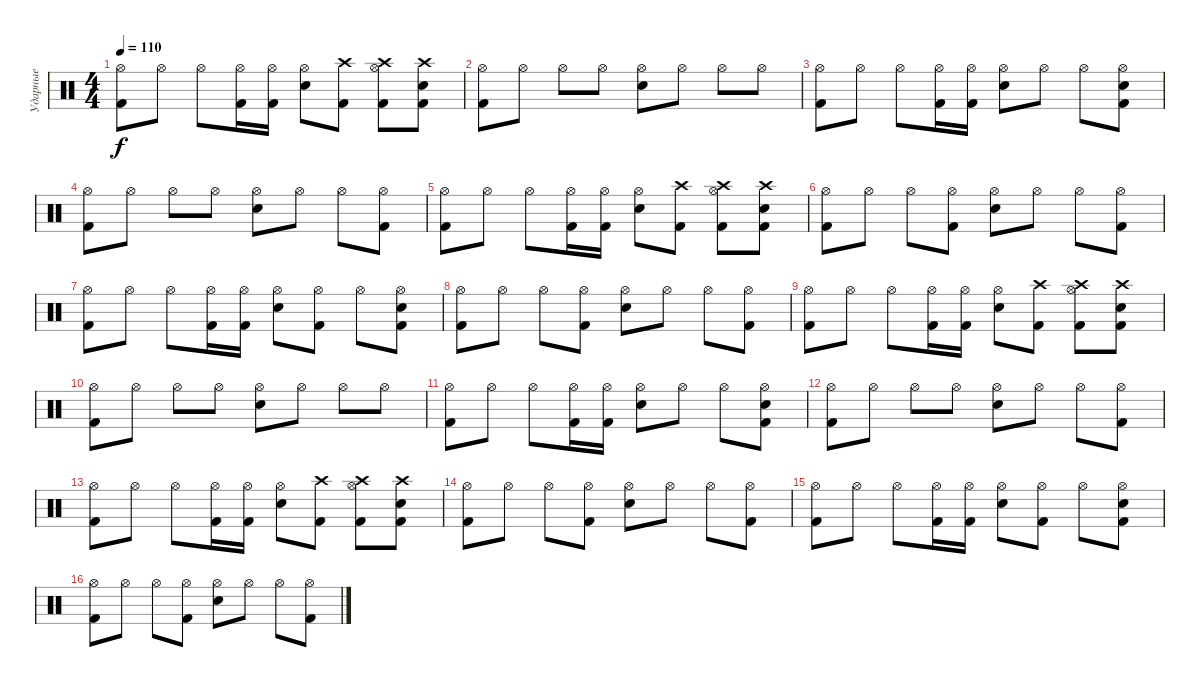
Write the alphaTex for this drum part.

\track ("Ударные" "Ударные") {instrument percussion}
\staff {score}
\articulation defaults
\ts (4 4)
\tempo 110
\clef neutral
\ks c
("Hi-Hat (open)" "Kick (hit) 2").8{dy f} "Hi-Hat (open)".8 "Hi-Hat (open)".8 ("Hi-Hat (open)" "Kick (hit) 2").16 ("Hi-Hat (open)" "Kick (hit) 2").16 ("Hi-Hat (open)" "Electric Snare (hit)").8 ("Crash high (hit)" "Kick (hit) 2").8 ("Crash high (hit)" "Hi-Hat (open)" "Kick (hit) 2").8 ("Crash high (hit)" "Electric Snare (hit)" "Kick (hit) 2").8 |
("Hi-Hat (open)" "Kick (hit) 2").8 "Hi-Hat (open)".8 "Hi-Hat (open)".8 "Hi-Hat (open)".8 ("Hi-Hat (open)" "Electric Snare (hit)").8 "Hi-Hat (open)".8 "Hi-Hat (open)".8 "Hi-Hat (open)".8 |
("Hi-Hat (open)" "Kick (hit) 2").8 "Hi-Hat (open)".8 "Hi-Hat (open)".8 ("Hi-Hat (open)" "Kick (hit) 2").16 ("Hi-Hat (open)" "Kick (hit) 2").16 ("Hi-Hat (open)" "Electric Snare (hit)").8 "Hi-Hat (open)".8 "Hi-Hat (open)".8 ("Electric Snare (hit)" "Hi-Hat (open)" "Kick (hit) 2").8 |
("Hi-Hat (open)" "Kick (hit) 2").8 "Hi-Hat (open)".8 "Hi-Hat (open)".8 "Hi-Hat (open)".8 ("Hi-Hat (open)" "Electric Snare (hit)").8 "Hi-Hat (open)".8 "Hi-Hat (open)".8 ("Hi-Hat (open)" "Kick (hit) 2").8 |
("Hi-Hat (open)" "Kick (hit) 2").8 "Hi-Hat (open)".8 "Hi-Hat (open)".8 ("Hi-Hat (open)" "Kick (hit) 2").16 ("Hi-Hat (open)" "Kick (hit) 2").16 ("Hi-Hat (open)" "Electric Snare (hit)").8 ("Crash high (hit)" "Kick (hit) 2").8 ("Crash high (hit)" "Hi-Hat (open)" "Kick (hit) 2").8 ("Crash high (hit)" "Electric Snare (hit)" "Kick (hit) 2").8 |
("Hi-Hat (open)" "Kick (hit) 2").8 "Hi-Hat (open)".8 "Hi-Hat (open)".8 ("Hi-Hat (open)" "Kick (hit) 2").8 ("Hi-Hat (open)" "Electric Snare (hit)").8 "Hi-Hat (open)".8 "Hi-Hat (open)".8 ("Hi-Hat (open)" "Kick (hit) 2").8 |
("Hi-Hat (open)" "Kick (hit) 2").8 "Hi-Hat (open)".8 "Hi-Hat (open)".8 ("Hi-Hat (open)" "Kick (hit) 2").16 ("Hi-Hat (open)" "Kick (hit) 2").16 ("Hi-Hat (open)" "Electric Snare (hit)").8 ("Hi-Hat (open)" "Kick (hit) 2").8 "Hi-Hat (open)".8 ("Electric Snare (hit)" "Hi-Hat (open)" "Kick (hit) 2").8 |
("Hi-Hat (open)" "Kick (hit) 2").8 "Hi-Hat (open)".8 "Hi-Hat (open)".8 ("Hi-Hat (open)" "Kick (hit) 2").8 ("Hi-Hat (open)" "Electric Snare (hit)").8 "Hi-Hat (open)".8 "Hi-Hat (open)".8 ("Hi-Hat (open)" "Kick (hit) 2").8 |
("Hi-Hat (open)" "Kick (hit) 2").8 "Hi-Hat (open)".8 "Hi-Hat (open)".8 ("Hi-Hat (open)" "Kick (hit) 2").16 ("Hi-Hat (open)" "Kick (hit) 2").16 ("Hi-Hat (open)" "Electric Snare (hit)").8 ("Crash high (hit)" "Kick (hit) 2").8 ("Crash high (hit)" "Hi-Hat (open)" "Kick (hit) 2").8 ("Crash high (hit)" "Electric Snare (hit)" "Kick (hit) 2").8 |
("Hi-Hat (open)" "Kick (hit) 2").8 "Hi-Hat (open)".8 "Hi-Hat (open)".8 "Hi-Hat (open)".8 ("Hi-Hat (open)" "Electric Snare (hit)").8 "Hi-Hat (open)".8 "Hi-Hat (open)".8 "Hi-Hat (open)".8 |
("Hi-Hat (open)" "Kick (hit) 2").8 "Hi-Hat (open)".8 "Hi-Hat (open)".8 ("Hi-Hat (open)" "Kick (hit) 2").16 ("Hi-Hat (open)" "Kick (hit) 2").16 ("Hi-Hat (open)" "Electric Snare (hit)").8 "Hi-Hat (open)".8 "Hi-Hat (open)".8 ("Electric Snare (hit)" "Hi-Hat (open)" "Kick (hit) 2").8 |
("Hi-Hat (open)" "Kick (hit) 2").8 "Hi-Hat (open)".8 "Hi-Hat (open)".8 "Hi-Hat (open)".8 ("Hi-Hat (open)" "Electric Snare (hit)").8 "Hi-Hat (open)".8 "Hi-Hat (open)".8 ("Hi-Hat (open)" "Kick (hit) 2").8 |
("Hi-Hat (open)" "Kick (hit) 2").8 "Hi-Hat (open)".8 "Hi-Hat (open)".8 ("Hi-Hat (open)" "Kick (hit) 2").16 ("Hi-Hat (open)" "Kick (hit) 2").16 ("Hi-Hat (open)" "Electric Snare (hit)").8 ("Crash high (hit)" "Kick (hit) 2").8 ("Crash high (hit)" "Hi-Hat (open)" "Kick (hit) 2").8 ("Crash high (hit)" "Electric Snare (hit)" "Kick (hit) 2").8 |
("Hi-Hat (open)" "Kick (hit) 2").8 "Hi-Hat (open)".8 "Hi-Hat (open)".8 ("Hi-Hat (open)" "Kick (hit) 2").8 ("Hi-Hat (open)" "Electric Snare (hit)").8 "Hi-Hat (open)".8 "Hi-Hat (open)".8 ("Hi-Hat (open)" "Kick (hit) 2").8 |
("Hi-Hat (open)" "Kick (hit) 2").8 "Hi-Hat (open)".8 "Hi-Hat (open)".8 ("Hi-Hat (open)" "Kick (hit) 2").16 ("Hi-Hat (open)" "Kick (hit) 2").16 ("Hi-Hat (open)" "Electric Snare (hit)").8 ("Hi-Hat (open)" "Kick (hit) 2").8 "Hi-Hat (open)".8 ("Electric Snare (hit)" "Hi-Hat (open)" "Kick (hit) 2").8 |
("Hi-Hat (open)" "Kick (hit) 2").8 "Hi-Hat (open)".8 "Hi-Hat (open)".8 ("Hi-Hat (open)" "Kick (hit) 2").8 ("Hi-Hat (open)" "Electric Snare (hit)").8 "Hi-Hat (open)".8 "Hi-Hat (open)".8 ("Hi-Hat (open)" "Kick (hit) 2").8
